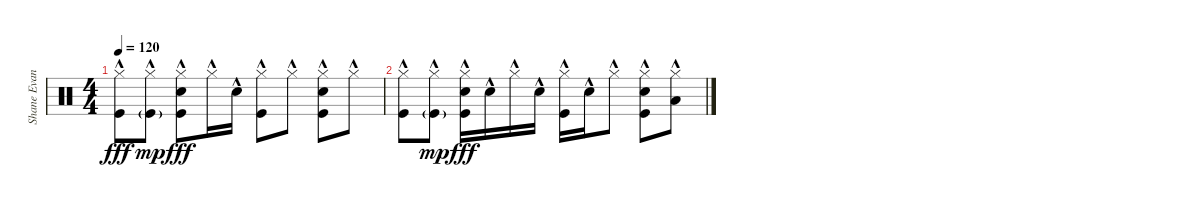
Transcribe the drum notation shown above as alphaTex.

\track ("Shane Evans" "Shane Evan") {instrument percussion}
\staff {score}
\articulation defaults
\ts (4 4)
\tempo 120
\clef neutral
\ks c
("Hi-Hat (closed)"{hac} "Kick (hit)"{hac}).8{dy fff} ("Hi-Hat (closed)"{hac} "Kick (hit)"{g}).8{dy mp} ("Hi-Hat (closed)"{hac} "Electric Snare (hit)"{hac} "Kick (hit)"{hac}).8{dy fff} "Hi-Hat (closed)"{hac}.16 "Electric Snare (hit)"{hac}.16 ("Hi-Hat (closed)"{hac} "Kick (hit)"{hac}).8 "Hi-Hat (closed)"{hac}.8 ("Hi-Hat (closed)"{hac} "Electric Snare (hit)"{hac} "Kick (hit)"{hac}).8 "Hi-Hat (closed)"{hac}.8 |
("Hi-Hat (closed)"{hac} "Kick (hit)"{hac}).8 ("Hi-Hat (closed)"{hac} "Kick (hit)"{g}).8{dy mp} ("Hi-Hat (closed)"{hac} "Electric Snare (hit)"{hac} "Kick (hit)"{hac}).16{dy fff} "Electric Snare (hit)"{hac}.16 "Hi-Hat (closed)"{hac}.16 "Electric Snare (hit)"{hac}.16 ("Hi-Hat (closed)"{hac} "Kick (hit)"{hac}).16 "Electric Snare (hit)"{hac}.16 "Hi-Hat (closed)"{hac}.8 ("Hi-Hat (closed)"{hac} "Electric Snare (hit)"{hac} "Kick (hit)"{hac}).8 ("Hi-Hat (closed)"{hac} "Low Tom (hit)"{hac}).8
